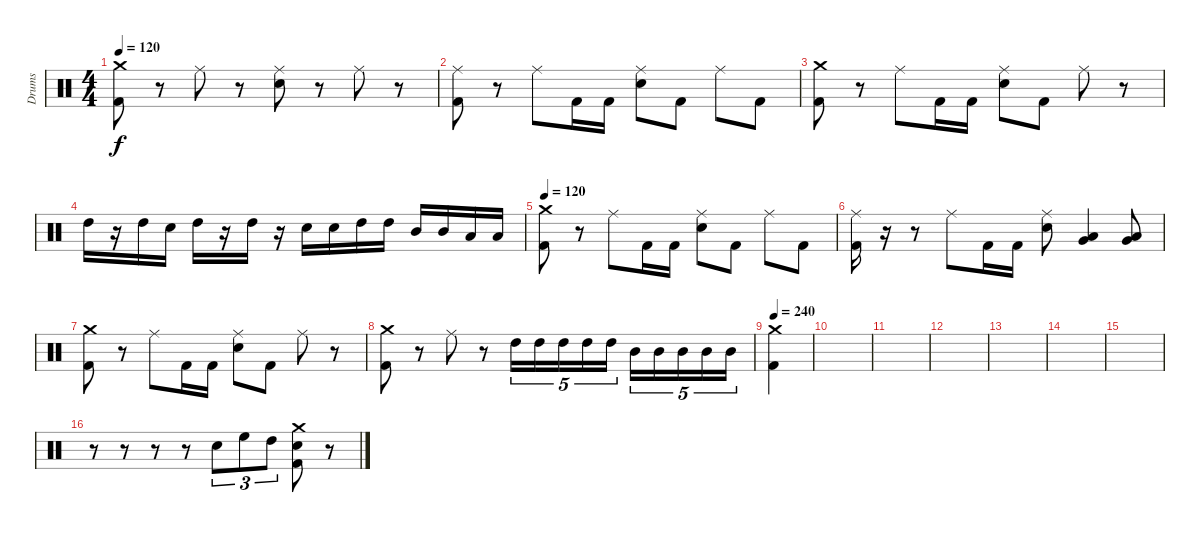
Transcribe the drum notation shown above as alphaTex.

\track ("Drums" "Drums") {instrument percussion}
\staff {score}
\articulation defaults
\ts (4 4)
\tempo 120
\clef neutral
\ks c
("Crash medium (hit)" "Kick (hit) 2").8{dy f} r.8 "Ride (middle)".8 r.8 ("Ride (middle)" "Snare (hit) 2").8 r.8 "Ride (middle)".8 r.8 |
("Ride (middle)" "Kick (hit) 2").8 r.8 "Ride (middle)".8 "Kick (hit) 2".16 "Kick (hit) 2".16 ("Ride (middle)" "Snare (hit) 2").8 "Kick (hit) 2".8 "Ride (middle)".8 "Kick (hit) 2".8 |
("Crash medium (hit)" "Kick (hit) 2").8 r.8 "Ride (middle)".8 "Kick (hit) 2".16 "Kick (hit) 2".16 ("Ride (middle)" "Snare (hit) 2").8 "Kick (hit) 2".8 "Ride (middle)".8 r.8 |
"High Tom (hit)".16 r.16 "High Tom (hit)".16 "Snare (hit) 2".16 "High Tom (hit)".16 r.16 "High Tom (hit)".16 r.16 "Snare (hit) 2".16 "Snare (hit) 2".16 "High Tom (hit)".16 "High Tom (hit)".16 "Mid Tom (hit)".16 "Mid Tom (hit)".16 "Low Tom (hit)".16 "Low Tom (hit)".16 |
\tempo 120
("Crash medium (hit)" "Kick (hit) 2").8 r.8 "Ride (middle)".8 "Kick (hit) 2".16 "Kick (hit) 2".16 ("Ride (middle)" "Snare (hit) 2").8 "Kick (hit) 2".8 "Ride (middle)".8 "Kick (hit) 2".8 |
("Ride (middle)" "Kick (hit) 2").16 r.16 r.8 "Ride (middle)".8 "Kick (hit) 2".16 "Kick (hit) 2".16 ("Ride (middle)" "Snare (hit) 2").8 ("Low Tom (hit)" "Very Low Tom (hit)").4 ("Low Tom (hit)" "Very Low Tom (hit)").8 |
("Crash medium (hit)" "Kick (hit) 2").8 r.8 "Ride (middle)".8 "Kick (hit) 2".16 "Kick (hit) 2".16 ("Ride (middle)" "Snare (hit) 2").8 "Kick (hit) 2".8 "Ride (middle)".8 r.8 |
("Crash medium (hit)" "Kick (hit) 2").8 r.8 "Ride (middle)".8 r.8 "High Tom (hit)".16{tu (5 4)} "High Tom (hit)".16{tu (5 4)} "High Tom (hit)".16{tu (5 4)} "High Tom (hit)".16{tu (5 4)} "High Tom (hit)".16{tu (5 4)} "Mid Tom (hit)".16{tu (5 4)} "Mid Tom (hit)".16{tu (5 4)} "Mid Tom (hit)".16{tu (5 4)} "Mid Tom (hit)".16{tu (5 4)} "Mid Tom (hit)".16{tu (5 4)} |
\tempo 240
("Crash medium (hit)" "Kick (hit) 2").4 |
|
|
|
|
|
|
r.8 r.8 r.8 r.8 "Snare (hit) 2".8{tu (3 2)} "High Floor Tom (hit)".8{tu (3 2)} "High Tom (hit)".8{tu (3 2)} ("Crash medium (hit)" "Snare (hit) 2" "Kick (hit) 2").8 r.8
